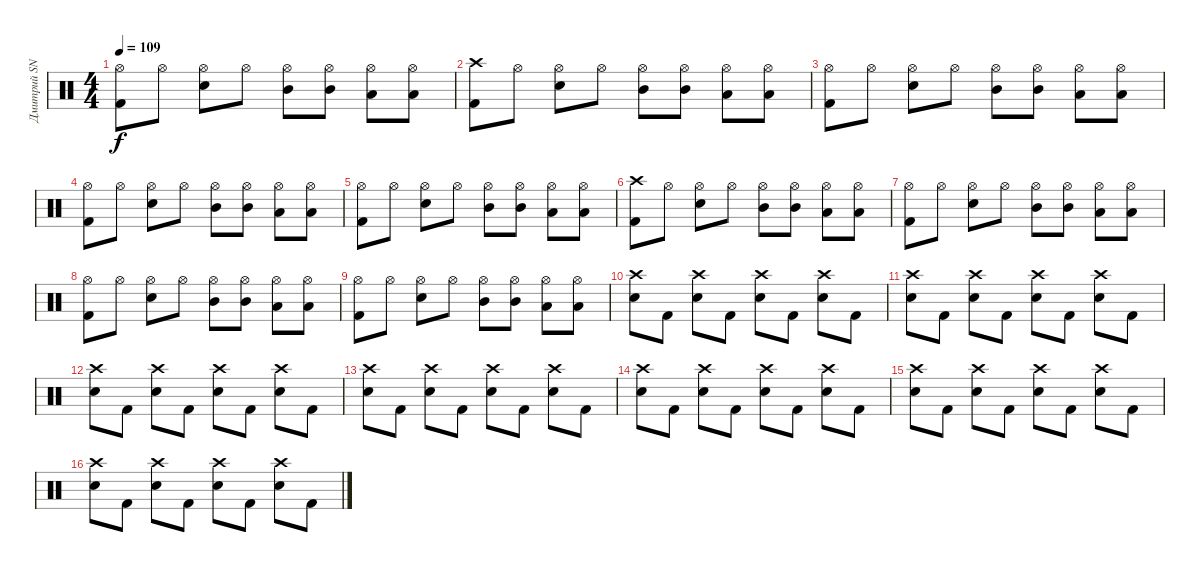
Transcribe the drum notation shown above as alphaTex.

\track ("Дмитрий SNAKE Хакимов" "Дмитрий SN") {instrument percussion}
\staff {score}
\articulation defaults
\ts (4 4)
\tempo 109
\clef neutral
\ks c
("Hi-Hat (open)" "Kick (hit) 2").8{dy f} "Hi-Hat (open)".8 ("Hi-Hat (open)" "Snare (hit) 2").8 "Hi-Hat (open)".8 ("Hi-Hat (open)" "Mid Tom (hit)").8 ("Hi-Hat (open)" "Mid Tom (hit)").8 ("Hi-Hat (open)" "Low Tom (hit)").8 ("Hi-Hat (open)" "Low Tom (hit)").8 |
("Crash high (hit)" "Kick (hit) 2").8 "Hi-Hat (open)".8 ("Hi-Hat (open)" "Snare (hit) 2").8 "Hi-Hat (open)".8 ("Hi-Hat (open)" "Mid Tom (hit)").8 ("Hi-Hat (open)" "Mid Tom (hit)").8 ("Hi-Hat (open)" "Low Tom (hit)").8 ("Hi-Hat (open)" "Low Tom (hit)").8 |
("Hi-Hat (open)" "Kick (hit) 2").8 "Hi-Hat (open)".8 ("Hi-Hat (open)" "Snare (hit) 2").8 "Hi-Hat (open)".8 ("Hi-Hat (open)" "Mid Tom (hit)").8 ("Hi-Hat (open)" "Mid Tom (hit)").8 ("Hi-Hat (open)" "Low Tom (hit)").8 ("Hi-Hat (open)" "Low Tom (hit)").8 |
("Hi-Hat (open)" "Kick (hit) 2").8 "Hi-Hat (open)".8 ("Hi-Hat (open)" "Snare (hit) 2").8 "Hi-Hat (open)".8 ("Hi-Hat (open)" "Mid Tom (hit)").8 ("Hi-Hat (open)" "Mid Tom (hit)").8 ("Hi-Hat (open)" "Low Tom (hit)").8 ("Hi-Hat (open)" "Low Tom (hit)").8 |
("Hi-Hat (open)" "Kick (hit) 2").8 "Hi-Hat (open)".8 ("Hi-Hat (open)" "Snare (hit) 2").8 "Hi-Hat (open)".8 ("Hi-Hat (open)" "Mid Tom (hit)").8 ("Hi-Hat (open)" "Mid Tom (hit)").8 ("Hi-Hat (open)" "Low Tom (hit)").8 ("Hi-Hat (open)" "Low Tom (hit)").8 |
("Crash high (hit)" "Kick (hit) 2").8 "Hi-Hat (open)".8 ("Hi-Hat (open)" "Snare (hit) 2").8 "Hi-Hat (open)".8 ("Hi-Hat (open)" "Mid Tom (hit)").8 ("Hi-Hat (open)" "Mid Tom (hit)").8 ("Hi-Hat (open)" "Low Tom (hit)").8 ("Hi-Hat (open)" "Low Tom (hit)").8 |
("Hi-Hat (open)" "Kick (hit) 2").8 "Hi-Hat (open)".8 ("Hi-Hat (open)" "Snare (hit) 2").8 "Hi-Hat (open)".8 ("Hi-Hat (open)" "Mid Tom (hit)").8 ("Hi-Hat (open)" "Mid Tom (hit)").8 ("Hi-Hat (open)" "Low Tom (hit)").8 ("Hi-Hat (open)" "Low Tom (hit)").8 |
("Hi-Hat (open)" "Kick (hit) 2").8 "Hi-Hat (open)".8 ("Hi-Hat (open)" "Snare (hit) 2").8 "Hi-Hat (open)".8 ("Hi-Hat (open)" "Mid Tom (hit)").8 ("Hi-Hat (open)" "Mid Tom (hit)").8 ("Hi-Hat (open)" "Low Tom (hit)").8 ("Hi-Hat (open)" "Low Tom (hit)").8 |
("Hi-Hat (open)" "Kick (hit) 2").8 "Hi-Hat (open)".8 ("Hi-Hat (open)" "Snare (hit) 2").8 "Hi-Hat (open)".8 ("Hi-Hat (open)" "Mid Tom (hit)").8 ("Hi-Hat (open)" "Mid Tom (hit)").8 ("Hi-Hat (open)" "Low Tom (hit)").8 ("Hi-Hat (open)" "Low Tom (hit)").8 |
("Crash high (hit)" "Snare (hit) 2").8 "Kick (hit) 2".8 ("Crash high (hit)" "Snare (hit) 2").8 "Kick (hit) 2".8 ("Crash high (hit)" "Snare (hit) 2").8 "Kick (hit) 2".8 ("Crash high (hit)" "Snare (hit) 2").8 "Kick (hit) 2".8 |
("Crash high (hit)" "Snare (hit) 2").8 "Kick (hit) 2".8 ("Crash high (hit)" "Snare (hit) 2").8 "Kick (hit) 2".8 ("Crash high (hit)" "Snare (hit) 2").8 "Kick (hit) 2".8 ("Crash high (hit)" "Snare (hit) 2").8 "Kick (hit) 2".8 |
("Crash high (hit)" "Snare (hit) 2").8 "Kick (hit) 2".8 ("Crash high (hit)" "Snare (hit) 2").8 "Kick (hit) 2".8 ("Crash high (hit)" "Snare (hit) 2").8 "Kick (hit) 2".8 ("Crash high (hit)" "Snare (hit) 2").8 "Kick (hit) 2".8 |
("Crash high (hit)" "Snare (hit) 2").8 "Kick (hit) 2".8 ("Crash high (hit)" "Snare (hit) 2").8 "Kick (hit) 2".8 ("Crash high (hit)" "Snare (hit) 2").8 "Kick (hit) 2".8 ("Crash high (hit)" "Snare (hit) 2").8 "Kick (hit) 2".8 |
("Crash high (hit)" "Snare (hit) 2").8 "Kick (hit) 2".8 ("Crash high (hit)" "Snare (hit) 2").8 "Kick (hit) 2".8 ("Crash high (hit)" "Snare (hit) 2").8 "Kick (hit) 2".8 ("Crash high (hit)" "Snare (hit) 2").8 "Kick (hit) 2".8 |
("Crash high (hit)" "Snare (hit) 2").8 "Kick (hit) 2".8 ("Crash high (hit)" "Snare (hit) 2").8 "Kick (hit) 2".8 ("Crash high (hit)" "Snare (hit) 2").8 "Kick (hit) 2".8 ("Crash high (hit)" "Snare (hit) 2").8 "Kick (hit) 2".8 |
("Crash high (hit)" "Snare (hit) 2").8 "Kick (hit) 2".8 ("Crash high (hit)" "Snare (hit) 2").8 "Kick (hit) 2".8 ("Crash high (hit)" "Snare (hit) 2").8 "Kick (hit) 2".8 ("Crash high (hit)" "Snare (hit) 2").8 "Kick (hit) 2".8
